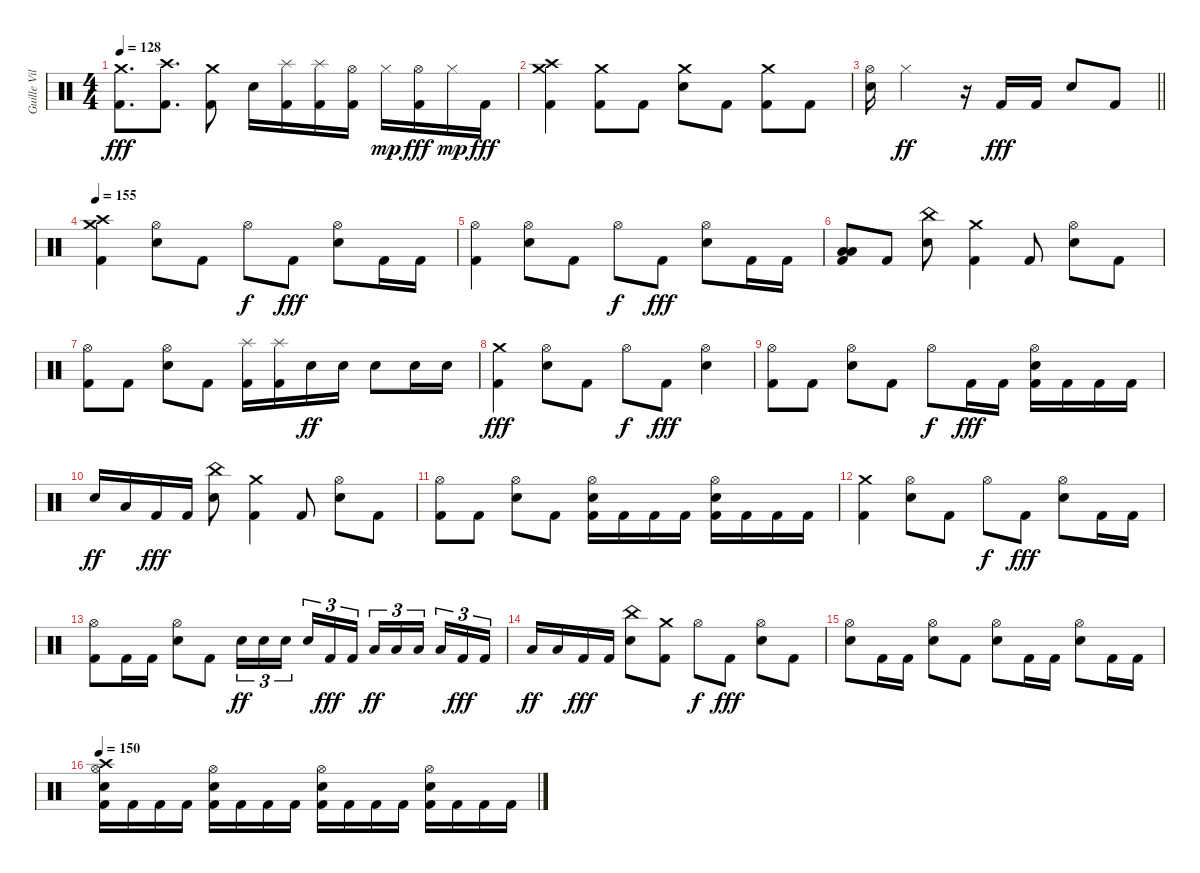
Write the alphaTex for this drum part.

\track ("Guille Vila" "Guille Vil") {instrument percussion}
\staff {score}
\articulation defaults
\ts (4 4)
\tempo 128
\clef neutral
\ks c
("Crash medium (hit)" "Kick (hit) 2").8{d dy fff} ("Crash high (hit)" "Kick (hit) 2").8{d} ("Crash medium (hit)" "Kick (hit) 2").8 "Snare (hit) 2".16 ("Splash (hit)" "Kick (hit) 2").16 ("Splash (hit)" "Kick (hit) 2").16 ("Hi-Hat (open)" "Kick (hit) 2").16 "Hi-Hat (closed)".16{dy mp} ("Hi-Hat (open)" "Kick (hit) 2").16{dy fff} "Hi-Hat (closed)".16{dy mp} "Kick (hit) 2".16{dy fff} |
("Crash medium (hit)" "Crash high (hit)" "Kick (hit) 2").4 ("Crash medium (hit)" "Kick (hit) 2").8 "Kick (hit) 2".8 ("Crash medium (hit)" "Snare (hit) 2").8 "Kick (hit) 2".8 ("Crash medium (hit)" "Kick (hit) 2").8 "Kick (hit) 2".8 |
\barLineRight lightlight
("Hi-Hat (open)" "Snare (hit) 2").16 "Hi-Hat (closed)".2{dy ff} r.16 "Kick (hit) 2".16{dy fff} "Kick (hit) 2".16 "Snare (hit) 2".8 "Kick (hit) 2".8 |
\tempo 150
\tempo 155
("Crash high (hit)" "Crash medium (hit)" "Kick (hit) 2").4 ("Hi-Hat (open)" "Snare (hit) 2").8 "Kick (hit) 2".8 "Hi-Hat (open)".8{dy f} "Kick (hit) 2".8{dy fff} ("Hi-Hat (open)" "Snare (hit) 2").8 "Kick (hit) 2".16 "Kick (hit) 2".16 |
("Hi-Hat (open)" "Kick (hit) 2").4 ("Hi-Hat (open)" "Snare (hit) 2").8 "Kick (hit) 2".8 "Hi-Hat (open)".8{dy f} "Kick (hit) 2".8{dy fff} ("Hi-Hat (open)" "Snare (hit) 2").8 "Kick (hit) 2".16 "Kick (hit) 2".16 |
("Low Tom (hit)" "Low Floor Tom (hit)" "Kick (hit) 2").8 "Kick (hit) 2".8 ("China (hit)" "Snare (hit) 2").8 ("Crash medium (hit)" "Kick (hit) 2").4 "Kick (hit) 2".8 ("Hi-Hat (open)" "Snare (hit) 2").8 "Kick (hit) 2".8 |
("Hi-Hat (open)" "Kick (hit) 2").8 "Kick (hit) 2".8 ("Hi-Hat (open)" "Snare (hit) 2").8 "Kick (hit) 2".8 ("Splash (hit)" "Kick (hit) 2").16 ("Splash (hit)" "Kick (hit) 2").16 "Snare (hit) 2".16{dy ff} "Snare (hit) 2".16 "Snare (hit) 2".8 "Snare (hit) 2".16 "Snare (hit) 2".16 |
("Crash medium (hit)" "Kick (hit) 2").4{dy fff} ("Hi-Hat (open)" "Snare (hit) 2").8 "Kick (hit) 2".8 "Hi-Hat (open)".8{dy f} "Kick (hit) 2".8{dy fff} ("Hi-Hat (open)" "Snare (hit) 2").4 |
("Hi-Hat (open)" "Kick (hit) 2").8 "Kick (hit) 2".8 ("Hi-Hat (open)" "Snare (hit) 2").8 "Kick (hit) 2".8 "Hi-Hat (open)".8{dy f} "Kick (hit) 2".16{dy fff} "Kick (hit) 2".16 ("Hi-Hat (open)" "Snare (hit) 2" "Kick (hit) 2").16 "Kick (hit) 2".16 "Kick (hit) 2".16 "Kick (hit) 2".16 |
"Snare (hit) 2".16{dy ff} "Low Tom (hit)".16 "Kick (hit) 2".16{dy fff} "Kick (hit) 2".16 ("China (hit)" "Snare (hit) 2").8 ("Crash medium (hit)" "Kick (hit) 2").4 "Kick (hit) 2".8 ("Hi-Hat (open)" "Snare (hit) 2").8 "Kick (hit) 2".8 |
("Hi-Hat (open)" "Kick (hit) 2").8 "Kick (hit) 2".8 ("Hi-Hat (open)" "Snare (hit) 2").8 "Kick (hit) 2".8 ("Hi-Hat (open)" "Snare (hit) 2" "Kick (hit) 2").16 "Kick (hit) 2".16 "Kick (hit) 2".16 "Kick (hit) 2".16 ("Hi-Hat (open)" "Snare (hit) 2" "Kick (hit) 2").16 "Kick (hit) 2".16 "Kick (hit) 2".16 "Kick (hit) 2".16 |
("Crash medium (hit)" "Kick (hit) 2").4 ("Hi-Hat (open)" "Snare (hit) 2").8 "Kick (hit) 2".8 "Hi-Hat (open)".8{dy f} "Kick (hit) 2".8{dy fff} ("Hi-Hat (open)" "Snare (hit) 2").8 "Kick (hit) 2".16 "Kick (hit) 2".16 |
("Hi-Hat (open)" "Kick (hit) 2").8 "Kick (hit) 2".16 "Kick (hit) 2".16 ("Hi-Hat (open)" "Snare (hit) 2").8 "Kick (hit) 2".8 "Snare (hit) 2".16{tu (3 2) dy ff} "Snare (hit) 2".16{tu (3 2)} "Snare (hit) 2".16{tu (3 2) beam splitsecondary} "Snare (hit) 2".16{tu (3 2)} "Kick (hit) 2".16{tu (3 2) dy fff} "Kick (hit) 2".16{tu (3 2)} "Low Tom (hit)".16{tu (3 2) dy ff} "Low Tom (hit)".16{tu (3 2)} "Low Tom (hit)".16{tu (3 2) beam splitsecondary} "Low Tom (hit)".16{tu (3 2)} "Kick (hit) 2".16{tu (3 2) dy fff} "Kick (hit) 2".16{tu (3 2)} |
"Low Floor Tom (hit)".16{dy ff} "Low Tom (hit)".16 "Kick (hit) 2".16{dy fff} "Kick (hit) 2".16 ("China (hit)" "Snare (hit) 2").8 ("Crash medium (hit)" "Kick (hit) 2").8 "Hi-Hat (open)".8{dy f} "Kick (hit) 2".8{dy fff} ("Hi-Hat (open)" "Snare (hit) 2").8 "Kick (hit) 2".8 |
("Hi-Hat (open)" "Snare (hit) 2").8 "Kick (hit) 2".16 "Kick (hit) 2".16 ("Hi-Hat (open)" "Snare (hit) 2").8 "Kick (hit) 2".8 ("Hi-Hat (open)" "Snare (hit) 2").8 "Kick (hit) 2".16 "Kick (hit) 2".16 ("Hi-Hat (open)" "Snare (hit) 2").8 "Kick (hit) 2".16 "Kick (hit) 2".16 |
\tempo 150
("Hi-Hat (open)" "Crash high (hit)" "Snare (hit) 2" "Kick (hit) 2").16 "Kick (hit) 2".16 "Kick (hit) 2".16 "Kick (hit) 2".16 ("Hi-Hat (open)" "Snare (hit) 2" "Kick (hit) 2").16 "Kick (hit) 2".16 "Kick (hit) 2".16 "Kick (hit) 2".16 ("Hi-Hat (open)" "Snare (hit) 2" "Kick (hit) 2").16 "Kick (hit) 2".16 "Kick (hit) 2".16 "Kick (hit) 2".16 ("Hi-Hat (open)" "Snare (hit) 2" "Kick (hit) 2").16 "Kick (hit) 2".16 "Kick (hit) 2".16 "Kick (hit) 2".16
